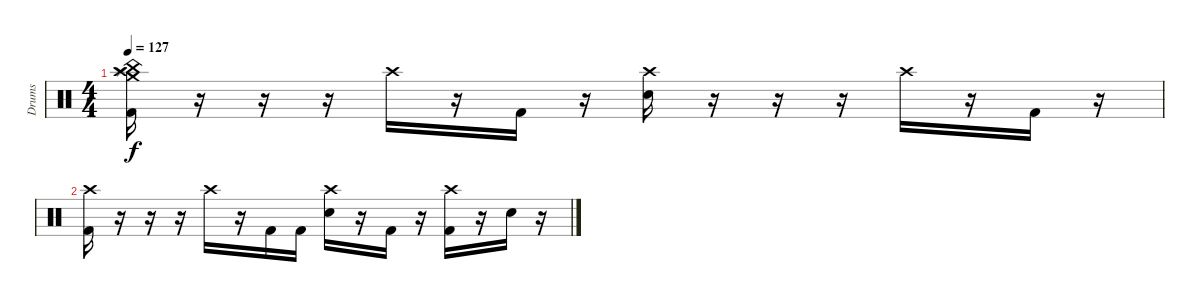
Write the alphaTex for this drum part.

\track ("Drums" "Drums") {instrument percussion}
\staff {score}
\articulation defaults
\ts (4 4)
\tempo 127
\clef neutral
\ks c
("China (hit)" "Crash high (hit)" "Crash medium (hit)" "Splash (hit)" "Kick (hit) 2").16{dy f} r.16 r.16 r.16 "Crash high (hit)".16 r.16 "Kick (hit) 2".16 r.16 ("Crash high (hit)" "Electric Snare (hit)").16 r.16 r.16 r.16 "Crash high (hit)".16 r.16 "Kick (hit) 2".16 r.16 |
("Crash high (hit)" "Kick (hit) 2").16 r.16 r.16 r.16 "Crash high (hit)".16 r.16 "Kick (hit) 2".16 "Kick (hit) 2".16 ("Crash high (hit)" "Electric Snare (hit)").16 r.16 "Kick (hit) 2".16 r.16 ("Crash high (hit)" "Kick (hit) 2").16 r.16 "Electric Snare (hit)".16 r.16
